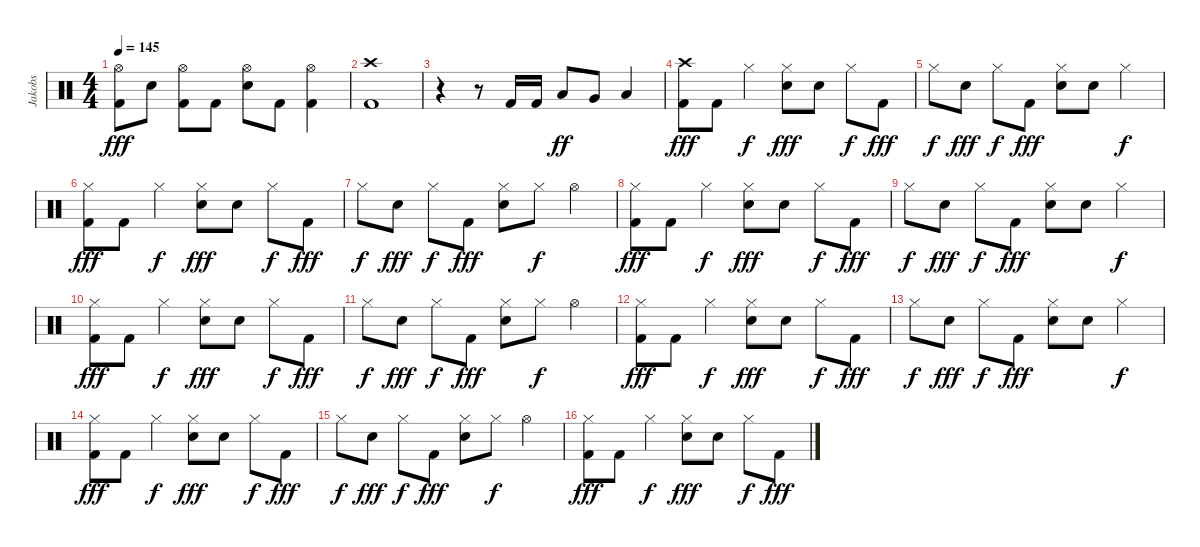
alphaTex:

\track ("Jakobs" "Jakobs") {instrument percussion}
\staff {score}
\articulation defaults
\ts (4 4)
\tempo 145
\clef neutral
\ks c
("Hi-Hat (open)" "Kick (hit) 2").8{dy fff} "Snare (hit) 2".8 ("Hi-Hat (open)" "Kick (hit) 2").8 "Kick (hit) 2".8 ("Hi-Hat (open)" "Snare (hit) 2").8 "Kick (hit) 2".8 ("Hi-Hat (open)" "Kick (hit) 2").4 |
("Crash high (hit)" "Kick (hit) 2").1 |
r.4 r.8 "Kick (hit) 2".16 "Kick (hit) 2".16 "Low Tom (hit)".8{dy ff} "Very Low Tom (hit)".8 "Low Floor Tom (hit)".4 |
("Crash high (hit)" "Kick (hit) 2").8{dy fff} "Kick (hit) 2".8 "Hi-Hat (closed)".4{dy f} ("Hi-Hat (closed)" "Snare (hit) 2").8{dy fff} "Snare (hit) 2".8 "Hi-Hat (closed)".8{dy f} "Kick (hit) 2".8{dy fff} |
"Hi-Hat (closed)".8{dy f} "Snare (hit) 2".8{dy fff} "Hi-Hat (closed)".8{dy f} "Kick (hit) 2".8{dy fff} ("Hi-Hat (closed)" "Snare (hit) 2").8 "Snare (hit) 2".8 "Hi-Hat (closed)".4{dy f} |
("Hi-Hat (closed)" "Kick (hit) 2").8{dy fff} "Kick (hit) 2".8 "Hi-Hat (closed)".4{dy f} ("Hi-Hat (closed)" "Snare (hit) 2").8{dy fff} "Snare (hit) 2".8 "Hi-Hat (closed)".8{dy f} "Kick (hit) 2".8{dy fff} |
"Hi-Hat (closed)".8{dy f} "Snare (hit) 2".8{dy fff} "Hi-Hat (closed)".8{dy f} "Kick (hit) 2".8{dy fff} ("Hi-Hat (closed)" "Snare (hit) 2").8 "Hi-Hat (closed)".8{dy f} "Hi-Hat (open)".4 |
("Hi-Hat (closed)" "Kick (hit) 2").8{dy fff} "Kick (hit) 2".8 "Hi-Hat (closed)".4{dy f} ("Hi-Hat (closed)" "Snare (hit) 2").8{dy fff} "Snare (hit) 2".8 "Hi-Hat (closed)".8{dy f} "Kick (hit) 2".8{dy fff} |
"Hi-Hat (closed)".8{dy f} "Snare (hit) 2".8{dy fff} "Hi-Hat (closed)".8{dy f} "Kick (hit) 2".8{dy fff} ("Hi-Hat (closed)" "Snare (hit) 2").8 "Snare (hit) 2".8 "Hi-Hat (closed)".4{dy f} |
("Hi-Hat (closed)" "Kick (hit) 2").8{dy fff} "Kick (hit) 2".8 "Hi-Hat (closed)".4{dy f} ("Hi-Hat (closed)" "Snare (hit) 2").8{dy fff} "Snare (hit) 2".8 "Hi-Hat (closed)".8{dy f} "Kick (hit) 2".8{dy fff} |
"Hi-Hat (closed)".8{dy f} "Snare (hit) 2".8{dy fff} "Hi-Hat (closed)".8{dy f} "Kick (hit) 2".8{dy fff} ("Hi-Hat (closed)" "Snare (hit) 2").8 "Hi-Hat (closed)".8{dy f} "Hi-Hat (open)".4 |
("Hi-Hat (closed)" "Kick (hit) 2").8{dy fff} "Kick (hit) 2".8 "Hi-Hat (closed)".4{dy f} ("Hi-Hat (closed)" "Snare (hit) 2").8{dy fff} "Snare (hit) 2".8 "Hi-Hat (closed)".8{dy f} "Kick (hit) 2".8{dy fff} |
"Hi-Hat (closed)".8{dy f} "Snare (hit) 2".8{dy fff} "Hi-Hat (closed)".8{dy f} "Kick (hit) 2".8{dy fff} ("Hi-Hat (closed)" "Snare (hit) 2").8 "Snare (hit) 2".8 "Hi-Hat (closed)".4{dy f} |
("Hi-Hat (closed)" "Kick (hit) 2").8{dy fff} "Kick (hit) 2".8 "Hi-Hat (closed)".4{dy f} ("Hi-Hat (closed)" "Snare (hit) 2").8{dy fff} "Snare (hit) 2".8 "Hi-Hat (closed)".8{dy f} "Kick (hit) 2".8{dy fff} |
"Hi-Hat (closed)".8{dy f} "Snare (hit) 2".8{dy fff} "Hi-Hat (closed)".8{dy f} "Kick (hit) 2".8{dy fff} ("Hi-Hat (closed)" "Snare (hit) 2").8 "Hi-Hat (closed)".8{dy f} "Hi-Hat (open)".4 |
("Hi-Hat (closed)" "Kick (hit) 2").8{dy fff} "Kick (hit) 2".8 "Hi-Hat (closed)".4{dy f} ("Hi-Hat (closed)" "Snare (hit) 2").8{dy fff} "Snare (hit) 2".8 "Hi-Hat (closed)".8{dy f} "Kick (hit) 2".8{dy fff}
